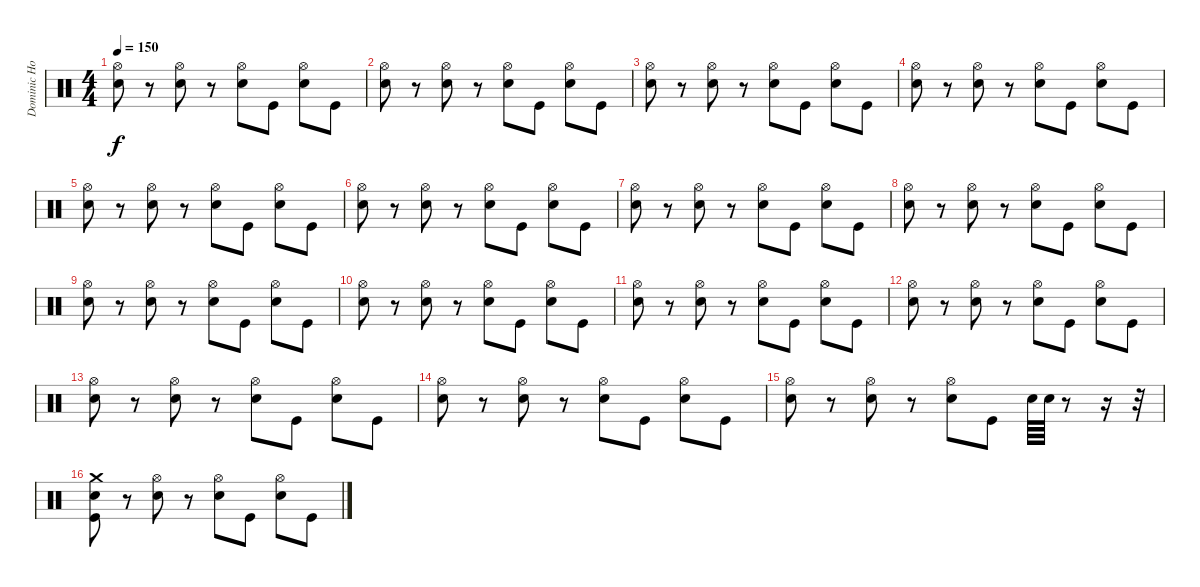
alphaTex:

\track ("Dominic Howard" "Dominic Ho") {instrument percussion}
\staff {score}
\articulation defaults
\ts (4 4)
\tempo 150
\clef neutral
\ks c
("Hi-Hat (open)" "Snare (hit) 2").8{dy f} r.8 ("Hi-Hat (open)" "Snare (hit) 2").8 r.8 ("Hi-Hat (open)" "Snare (hit) 2").8 "Kick (hit)".8 ("Hi-Hat (open)" "Snare (hit) 2").8 "Kick (hit)".8 |
("Hi-Hat (open)" "Snare (hit) 2").8 r.8 ("Hi-Hat (open)" "Snare (hit) 2").8 r.8 ("Hi-Hat (open)" "Snare (hit) 2").8 "Kick (hit)".8 ("Hi-Hat (open)" "Snare (hit) 2").8 "Kick (hit)".8 |
("Hi-Hat (open)" "Snare (hit) 2").8 r.8 ("Hi-Hat (open)" "Snare (hit) 2").8 r.8 ("Hi-Hat (open)" "Snare (hit) 2").8 "Kick (hit)".8 ("Hi-Hat (open)" "Snare (hit) 2").8 "Kick (hit)".8 |
("Hi-Hat (open)" "Snare (hit) 2").8 r.8 ("Hi-Hat (open)" "Snare (hit) 2").8 r.8 ("Hi-Hat (open)" "Snare (hit) 2").8 "Kick (hit)".8 ("Hi-Hat (open)" "Snare (hit) 2").8 "Kick (hit)".8 |
("Hi-Hat (open)" "Snare (hit) 2").8 r.8 ("Hi-Hat (open)" "Snare (hit) 2").8 r.8 ("Hi-Hat (open)" "Snare (hit) 2").8 "Kick (hit)".8 ("Hi-Hat (open)" "Snare (hit) 2").8 "Kick (hit)".8 |
("Hi-Hat (open)" "Snare (hit) 2").8 r.8 ("Hi-Hat (open)" "Snare (hit) 2").8 r.8 ("Hi-Hat (open)" "Snare (hit) 2").8 "Kick (hit)".8 ("Hi-Hat (open)" "Snare (hit) 2").8 "Kick (hit)".8 |
("Hi-Hat (open)" "Snare (hit) 2").8 r.8 ("Hi-Hat (open)" "Snare (hit) 2").8 r.8 ("Hi-Hat (open)" "Snare (hit) 2").8 "Kick (hit)".8 ("Hi-Hat (open)" "Snare (hit) 2").8 "Kick (hit)".8 |
("Hi-Hat (open)" "Snare (hit) 2").8 r.8 ("Hi-Hat (open)" "Snare (hit) 2").8 r.8 ("Hi-Hat (open)" "Snare (hit) 2").8 "Kick (hit)".8 ("Hi-Hat (open)" "Snare (hit) 2").8 "Kick (hit)".8 |
("Hi-Hat (open)" "Snare (hit) 2").8 r.8 ("Hi-Hat (open)" "Snare (hit) 2").8 r.8 ("Hi-Hat (open)" "Snare (hit) 2").8 "Kick (hit)".8 ("Hi-Hat (open)" "Snare (hit) 2").8 "Kick (hit)".8 |
("Hi-Hat (open)" "Snare (hit) 2").8 r.8 ("Hi-Hat (open)" "Snare (hit) 2").8 r.8 ("Hi-Hat (open)" "Snare (hit) 2").8 "Kick (hit)".8 ("Hi-Hat (open)" "Snare (hit) 2").8 "Kick (hit)".8 |
("Hi-Hat (open)" "Snare (hit) 2").8 r.8 ("Hi-Hat (open)" "Snare (hit) 2").8 r.8 ("Hi-Hat (open)" "Snare (hit) 2").8 "Kick (hit)".8 ("Hi-Hat (open)" "Snare (hit) 2").8 "Kick (hit)".8 |
("Hi-Hat (open)" "Snare (hit) 2").8 r.8 ("Hi-Hat (open)" "Snare (hit) 2").8 r.8 ("Hi-Hat (open)" "Snare (hit) 2").8 "Kick (hit)".8 ("Hi-Hat (open)" "Snare (hit) 2").8 "Kick (hit)".8 |
("Hi-Hat (open)" "Snare (hit) 2").8 r.8 ("Hi-Hat (open)" "Snare (hit) 2").8 r.8 ("Hi-Hat (open)" "Snare (hit) 2").8 "Kick (hit)".8 ("Hi-Hat (open)" "Snare (hit) 2").8 "Kick (hit)".8 |
("Hi-Hat (open)" "Snare (hit) 2").8 r.8 ("Hi-Hat (open)" "Snare (hit) 2").8 r.8 ("Hi-Hat (open)" "Snare (hit) 2").8 "Kick (hit)".8 ("Hi-Hat (open)" "Snare (hit) 2").8 "Kick (hit)".8 |
("Hi-Hat (open)" "Snare (hit) 2").8 r.8 ("Hi-Hat (open)" "Snare (hit) 2").8 r.8 ("Hi-Hat (open)" "Snare (hit) 2").8 "Kick (hit)".8 "Snare (hit) 2".64 "Snare (hit) 2".64 r.8 r.16 r.32 |
("Crash medium (hit)" "Snare (hit) 2" "Kick (hit)").8 r.8 ("Hi-Hat (open)" "Snare (hit) 2").8 r.8 ("Hi-Hat (open)" "Snare (hit) 2").8 "Kick (hit)".8 ("Hi-Hat (open)" "Snare (hit) 2").8 "Kick (hit)".8
